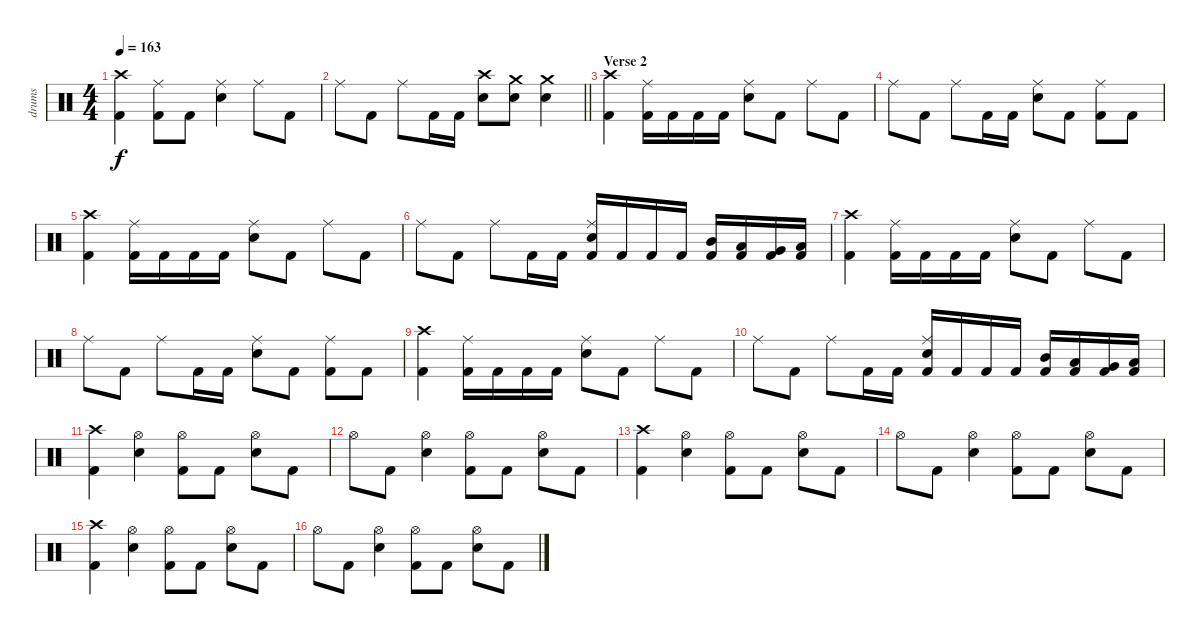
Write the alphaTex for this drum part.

\track ("drums" "drums") {instrument percussion}
\staff {score}
\articulation defaults
\ts (4 4)
\tempo 163
\clef neutral
\ks c
("Crash high (hit)" "Kick (hit) 2").4{dy f} ("Ride (middle)" "Kick (hit) 2").8 "Kick (hit) 2".8 ("Ride (middle)" "Snare (hit) 2").4 "Ride (middle)".8 "Kick (hit) 2".8 |
\barLineRight lightlight "Ride (middle)".8 "Kick (hit) 2".8 "Ride (middle)".8 "Kick (hit) 2".16 "Kick (hit) 2".16
("Crash high (hit)" "Snare (hit) 2").8 ("Crash medium (hit)" "Snare (hit) 2").8 ("Crash medium (hit)" "Snare (hit) 2").4 |
\section ("" "Verse 2")
("Crash high (hit)" "Kick (hit) 2").4 ("Ride (middle)" "Kick (hit) 2").16 "Kick (hit) 2".16 "Kick (hit) 2".16 "Kick (hit) 2".16 ("Ride (middle)" "Snare (hit) 2").8 "Kick (hit) 2".8 "Ride (middle)".8 "Kick (hit) 2".8 |
"Ride (middle)".8 "Kick (hit) 2".8 "Ride (middle)".8 "Kick (hit) 2".16 "Kick (hit) 2".16 ("Ride (middle)" "Snare (hit) 2").8 "Kick (hit) 2".8 ("Ride (middle)" "Kick (hit) 2").8 "Kick (hit) 2".8 |
("Crash high (hit)" "Kick (hit) 2").4 ("Ride (middle)" "Kick (hit) 2").16 "Kick (hit) 2".16 "Kick (hit) 2".16 "Kick (hit) 2".16 ("Ride (middle)" "Snare (hit) 2").8 "Kick (hit) 2".8 "Ride (middle)".8 "Kick (hit) 2".8 |
"Ride (middle)".8 "Kick (hit) 2".8 "Ride (middle)".8 "Kick (hit) 2".16 "Kick (hit) 2".16 ("Ride (middle)" "Snare (hit) 2" "Kick (hit) 2").16 "Kick (hit) 2".16 "Kick (hit) 2".16 "Kick (hit) 2".16 ("Mid Tom (hit)" "Kick (hit) 2").16 ("Low Tom (hit)" "Kick (hit) 2").16 ("Very Low Tom (hit)" "Kick (hit) 2").16 ("Low Floor Tom (hit)" "Kick (hit) 2").16 |
("Crash high (hit)" "Kick (hit) 2").4 ("Ride (middle)" "Kick (hit) 2").16 "Kick (hit) 2".16 "Kick (hit) 2".16 "Kick (hit) 2".16 ("Ride (middle)" "Snare (hit) 2").8 "Kick (hit) 2".8 "Ride (middle)".8 "Kick (hit) 2".8 |
"Ride (middle)".8 "Kick (hit) 2".8 "Ride (middle)".8 "Kick (hit) 2".16 "Kick (hit) 2".16 ("Ride (middle)" "Snare (hit) 2").8 "Kick (hit) 2".8 ("Ride (middle)" "Kick (hit) 2").8 "Kick (hit) 2".8 |
("Crash high (hit)" "Kick (hit) 2").4 ("Ride (middle)" "Kick (hit) 2").16 "Kick (hit) 2".16 "Kick (hit) 2".16 "Kick (hit) 2".16 ("Ride (middle)" "Snare (hit) 2").8 "Kick (hit) 2".8 "Ride (middle)".8 "Kick (hit) 2".8 |
"Ride (middle)".8 "Kick (hit) 2".8 "Ride (middle)".8 "Kick (hit) 2".16 "Kick (hit) 2".16 ("Ride (middle)" "Snare (hit) 2" "Kick (hit) 2").16 "Kick (hit) 2".16 "Kick (hit) 2".16 "Kick (hit) 2".16 ("Mid Tom (hit)" "Kick (hit) 2").16 ("Low Tom (hit)" "Kick (hit) 2").16 ("Very Low Tom (hit)" "Kick (hit) 2").16 ("Low Floor Tom (hit)" "Kick (hit) 2").16 |
("Crash high (hit)" "Kick (hit) 2").4 ("Hi-Hat (open)" "Snare (hit) 2").4 ("Hi-Hat (open)" "Kick (hit) 2").8 "Kick (hit) 2".8 ("Hi-Hat (open)" "Snare (hit) 2").8 "Kick (hit) 2".8 |
"Hi-Hat (open)".8 "Kick (hit) 2".8 ("Hi-Hat (open)" "Snare (hit) 2").4 ("Hi-Hat (open)" "Kick (hit) 2").8 "Kick (hit) 2".8 ("Hi-Hat (open)" "Snare (hit) 2").8 "Kick (hit) 2".8 |
("Crash high (hit)" "Kick (hit) 2").4 ("Hi-Hat (open)" "Snare (hit) 2").4 ("Hi-Hat (open)" "Kick (hit) 2").8 "Kick (hit) 2".8 ("Hi-Hat (open)" "Snare (hit) 2").8 "Kick (hit) 2".8 |
"Hi-Hat (open)".8 "Kick (hit) 2".8 ("Hi-Hat (open)" "Snare (hit) 2").4 ("Hi-Hat (open)" "Kick (hit) 2").8 "Kick (hit) 2".8 ("Hi-Hat (open)" "Snare (hit) 2").8 "Kick (hit) 2".8 |
("Crash high (hit)" "Kick (hit) 2").4 ("Hi-Hat (open)" "Snare (hit) 2").4 ("Hi-Hat (open)" "Kick (hit) 2").8 "Kick (hit) 2".8 ("Hi-Hat (open)" "Snare (hit) 2").8 "Kick (hit) 2".8 |
"Hi-Hat (open)".8 "Kick (hit) 2".8 ("Hi-Hat (open)" "Snare (hit) 2").4 ("Hi-Hat (open)" "Kick (hit) 2").8 "Kick (hit) 2".8 ("Hi-Hat (open)" "Snare (hit) 2").8 "Kick (hit) 2".8
